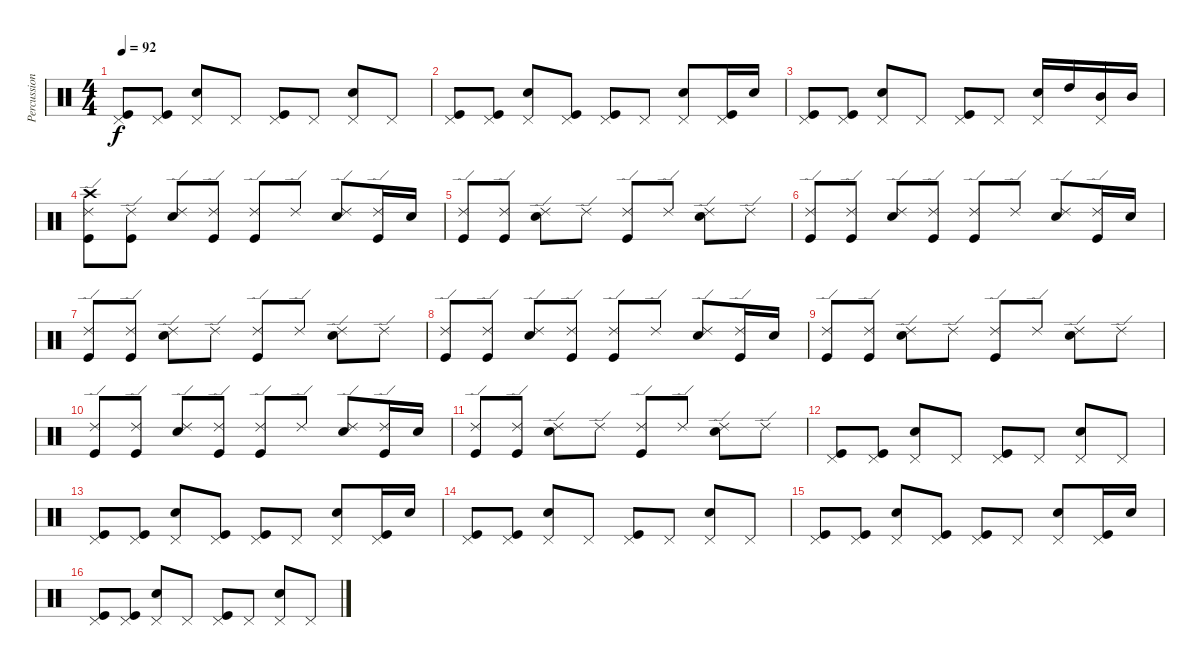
\track ("Percussion" "Percussion") {instrument percussion}
\staff {score}
\articulation defaults
\ts (4 4)
\tempo 92
\clef neutral
\ks c
("Pedal Hi-Hat (hit)" "Kick (hit)").8{dy f} ("Pedal Hi-Hat (hit)" "Kick (hit)").8 ("Pedal Hi-Hat (hit)" "Snare (hit) 2").8 "Pedal Hi-Hat (hit)".8 ("Pedal Hi-Hat (hit)" "Kick (hit)").8 "Pedal Hi-Hat (hit)".8 ("Pedal Hi-Hat (hit)" "Snare (hit) 2").8 "Pedal Hi-Hat (hit)".8 |
("Pedal Hi-Hat (hit)" "Kick (hit)").8 ("Pedal Hi-Hat (hit)" "Kick (hit)").8 ("Pedal Hi-Hat (hit)" "Snare (hit) 2").8 ("Pedal Hi-Hat (hit)" "Kick (hit)").8 ("Pedal Hi-Hat (hit)" "Kick (hit)").8 "Pedal Hi-Hat (hit)".8 ("Pedal Hi-Hat (hit)" "Snare (hit) 2").8 ("Pedal Hi-Hat (hit)" "Kick (hit)").16 "Snare (hit) 2".16 |
("Pedal Hi-Hat (hit)" "Kick (hit)").8 ("Pedal Hi-Hat (hit)" "Kick (hit)").8 ("Pedal Hi-Hat (hit)" "Snare (hit) 2").8 "Pedal Hi-Hat (hit)".8 ("Pedal Hi-Hat (hit)" "Kick (hit)").8 "Pedal Hi-Hat (hit)".8 ("Pedal Hi-Hat (hit)" "Snare (hit) 2").16 "High Tom (hit)".16 ("Pedal Hi-Hat (hit)" "Mid Tom (hit)").16 "Mid Tom (hit)".16 |
("Ride (edge) 2" "Crash high (hit)" "Kick (hit)").8 ("Ride (edge) 2" "Kick (hit)").8 ("Ride (edge) 2" "Snare (hit) 2").8 ("Ride (edge) 2" "Kick (hit)").8 ("Ride (edge) 2" "Kick (hit)").8 "Ride (edge) 2".8 ("Ride (edge) 2" "Snare (hit) 2").8 ("Ride (edge) 2" "Kick (hit)").16 "Snare (hit) 2".16 |
("Ride (edge) 2" "Kick (hit)").8 ("Ride (edge) 2" "Kick (hit)").8 ("Ride (edge) 2" "Snare (hit) 2").8 "Ride (edge) 2".8 ("Ride (edge) 2" "Kick (hit)").8 "Ride (edge) 2".8 ("Ride (edge) 2" "Snare (hit) 2").8 "Ride (edge) 2".8 |
("Ride (edge) 2" "Kick (hit)").8 ("Ride (edge) 2" "Kick (hit)").8 ("Ride (edge) 2" "Snare (hit) 2").8 ("Ride (edge) 2" "Kick (hit)").8 ("Ride (edge) 2" "Kick (hit)").8 "Ride (edge) 2".8 ("Ride (edge) 2" "Snare (hit) 2").8 ("Ride (edge) 2" "Kick (hit)").16 "Snare (hit) 2".16 |
("Ride (edge) 2" "Kick (hit)").8 ("Ride (edge) 2" "Kick (hit)").8 ("Ride (edge) 2" "Snare (hit) 2").8 "Ride (edge) 2".8 ("Ride (edge) 2" "Kick (hit)").8 "Ride (edge) 2".8 ("Ride (edge) 2" "Snare (hit) 2").8 "Ride (edge) 2".8 |
("Ride (edge) 2" "Kick (hit)").8 ("Ride (edge) 2" "Kick (hit)").8 ("Ride (edge) 2" "Snare (hit) 2").8 ("Ride (edge) 2" "Kick (hit)").8 ("Ride (edge) 2" "Kick (hit)").8 "Ride (edge) 2".8 ("Ride (edge) 2" "Snare (hit) 2").8 ("Ride (edge) 2" "Kick (hit)").16 "Snare (hit) 2".16 |
("Ride (edge) 2" "Kick (hit)").8 ("Ride (edge) 2" "Kick (hit)").8 ("Ride (edge) 2" "Snare (hit) 2").8 "Ride (edge) 2".8 ("Ride (edge) 2" "Kick (hit)").8 "Ride (edge) 2".8 ("Ride (edge) 2" "Snare (hit) 2").8 "Ride (edge) 2".8 |
("Ride (edge) 2" "Kick (hit)").8 ("Ride (edge) 2" "Kick (hit)").8 ("Ride (edge) 2" "Snare (hit) 2").8 ("Ride (edge) 2" "Kick (hit)").8 ("Ride (edge) 2" "Kick (hit)").8 "Ride (edge) 2".8 ("Ride (edge) 2" "Snare (hit) 2").8 ("Ride (edge) 2" "Kick (hit)").16 "Snare (hit) 2".16 |
("Ride (edge) 2" "Kick (hit)").8 ("Ride (edge) 2" "Kick (hit)").8 ("Ride (edge) 2" "Snare (hit) 2").8 "Ride (edge) 2".8 ("Ride (edge) 2" "Kick (hit)").8 "Ride (edge) 2".8 ("Ride (edge) 2" "Snare (hit) 2").8 "Ride (edge) 2".8 |
("Pedal Hi-Hat (hit)" "Kick (hit)").8 ("Pedal Hi-Hat (hit)" "Kick (hit)").8 ("Pedal Hi-Hat (hit)" "Snare (hit) 2").8 "Pedal Hi-Hat (hit)".8 ("Pedal Hi-Hat (hit)" "Kick (hit)").8 "Pedal Hi-Hat (hit)".8 ("Pedal Hi-Hat (hit)" "Snare (hit) 2").8 "Pedal Hi-Hat (hit)".8 |
("Pedal Hi-Hat (hit)" "Kick (hit)").8 ("Pedal Hi-Hat (hit)" "Kick (hit)").8 ("Pedal Hi-Hat (hit)" "Snare (hit) 2").8 ("Pedal Hi-Hat (hit)" "Kick (hit)").8 ("Pedal Hi-Hat (hit)" "Kick (hit)").8 "Pedal Hi-Hat (hit)".8 ("Pedal Hi-Hat (hit)" "Snare (hit) 2").8 ("Pedal Hi-Hat (hit)" "Kick (hit)").16 "Snare (hit) 2".16 |
("Pedal Hi-Hat (hit)" "Kick (hit)").8 ("Pedal Hi-Hat (hit)" "Kick (hit)").8 ("Pedal Hi-Hat (hit)" "Snare (hit) 2").8 "Pedal Hi-Hat (hit)".8 ("Pedal Hi-Hat (hit)" "Kick (hit)").8 "Pedal Hi-Hat (hit)".8 ("Pedal Hi-Hat (hit)" "Snare (hit) 2").8 "Pedal Hi-Hat (hit)".8 |
("Pedal Hi-Hat (hit)" "Kick (hit)").8 ("Pedal Hi-Hat (hit)" "Kick (hit)").8 ("Pedal Hi-Hat (hit)" "Snare (hit) 2").8 ("Pedal Hi-Hat (hit)" "Kick (hit)").8 ("Pedal Hi-Hat (hit)" "Kick (hit)").8 "Pedal Hi-Hat (hit)".8 ("Pedal Hi-Hat (hit)" "Snare (hit) 2").8 ("Pedal Hi-Hat (hit)" "Kick (hit)").16 "Snare (hit) 2".16 |
("Pedal Hi-Hat (hit)" "Kick (hit)").8 ("Pedal Hi-Hat (hit)" "Kick (hit)").8 ("Pedal Hi-Hat (hit)" "Snare (hit) 2").8 "Pedal Hi-Hat (hit)".8 ("Pedal Hi-Hat (hit)" "Kick (hit)").8 "Pedal Hi-Hat (hit)".8 ("Pedal Hi-Hat (hit)" "Snare (hit) 2").8 "Pedal Hi-Hat (hit)".8
